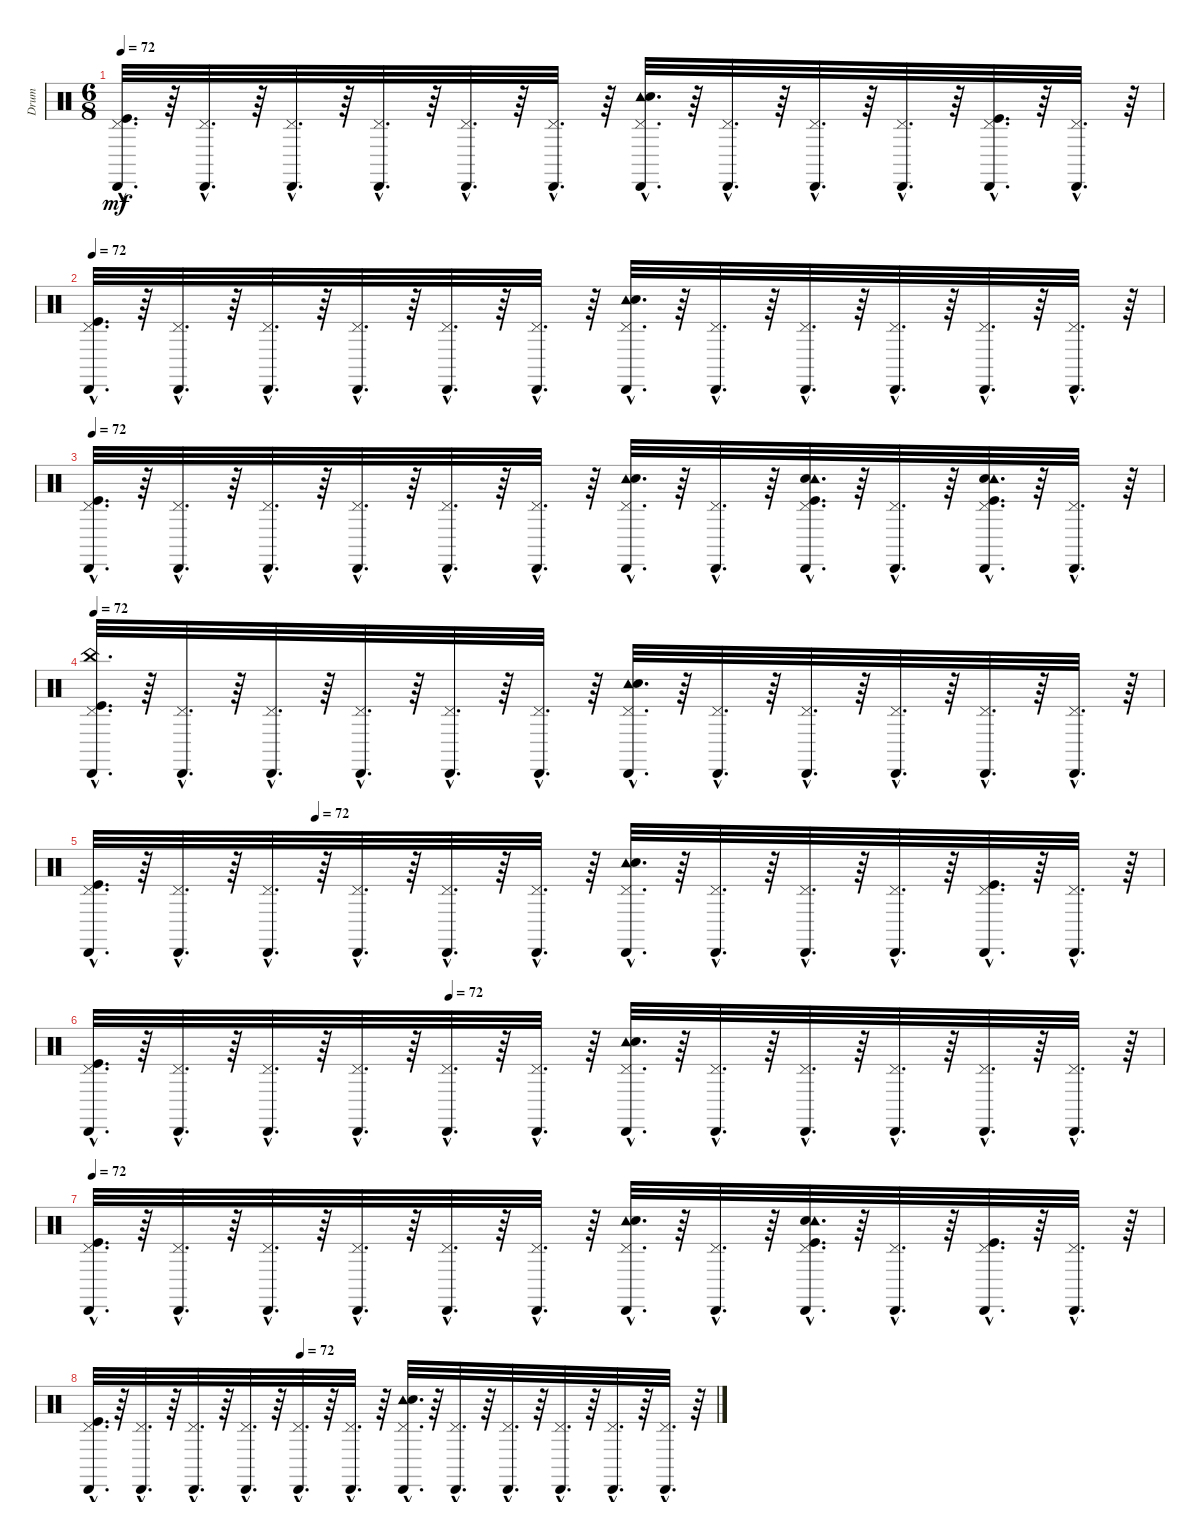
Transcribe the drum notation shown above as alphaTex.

\track ("Drum" "Drum") {instrument percussion}
\staff {score}
\articulation defaults
\ts (6 8)
\tempo 72
\clef neutral
\ks c
("Cabasa (hit)"{hac} "Pedal Hi-Hat (hit)"{hac} "Kick (hit)"{hac}).32{d dy mf} r.64 ("Cabasa (hit)"{hac} "Pedal Hi-Hat (hit)"{hac}).32{d} r.64 ("Cabasa (hit)"{hac} "Pedal Hi-Hat (hit)"{hac}).32{d} r.64 ("Cabasa (hit)"{hac} "Pedal Hi-Hat (hit)"{hac}).32{d} r.64 ("Cabasa (hit)"{hac} "Pedal Hi-Hat (hit)"{hac}).32{d} r.64 ("Cabasa (hit)"{hac} "Pedal Hi-Hat (hit)"{hac}).32{d} r.64 ("Cabasa (hit)"{hac} "Pedal Hi-Hat (hit)"{hac} "Tambourine (hit)"{hac} "Electric Snare (hit)"{hac}).32{d} r.64 ("Cabasa (hit)"{hac} "Pedal Hi-Hat (hit)"{hac}).32{d} r.64 ("Cabasa (hit)"{hac} "Pedal Hi-Hat (hit)"{hac}).32{d} r.64 ("Cabasa (hit)"{hac} "Pedal Hi-Hat (hit)"{hac}).32{d} r.64 ("Kick (hit)"{hac} "Cabasa (hit)"{hac} "Pedal Hi-Hat (hit)"{hac}).32{d} r.64 ("Cabasa (hit)"{hac} "Pedal Hi-Hat (hit)"{hac}).32{d} r.64 |
\tempo 72
("Cabasa (hit)"{hac} "Pedal Hi-Hat (hit)"{hac} "Kick (hit)"{hac}).32{d} r.64 ("Cabasa (hit)"{hac} "Pedal Hi-Hat (hit)"{hac}).32{d} r.64 ("Cabasa (hit)"{hac} "Pedal Hi-Hat (hit)"{hac}).32{d} r.64 ("Cabasa (hit)"{hac} "Pedal Hi-Hat (hit)"{hac}).32{d} r.64 ("Cabasa (hit)"{hac} "Pedal Hi-Hat (hit)"{hac}).32{d} r.64 ("Cabasa (hit)"{hac} "Pedal Hi-Hat (hit)"{hac}).32{d} r.64 ("Cabasa (hit)"{hac} "Pedal Hi-Hat (hit)"{hac} "Tambourine (hit)"{hac} "Electric Snare (hit)"{hac}).32{d} r.64 ("Cabasa (hit)"{hac} "Pedal Hi-Hat (hit)"{hac}).32{d} r.64 ("Cabasa (hit)"{hac} "Pedal Hi-Hat (hit)"{hac}).32{d} r.64 ("Cabasa (hit)"{hac} "Pedal Hi-Hat (hit)"{hac}).32{d} r.64 ("Cabasa (hit)"{hac} "Pedal Hi-Hat (hit)"{hac}).32{d} r.64 ("Cabasa (hit)"{hac} "Pedal Hi-Hat (hit)"{hac}).32{d} r.64 |
\tempo 72
("Cabasa (hit)"{hac} "Pedal Hi-Hat (hit)"{hac} "Kick (hit)"{hac}).32{d} r.64 ("Pedal Hi-Hat (hit)"{hac} "Cabasa (hit)"{hac}).32{d} r.64 ("Cabasa (hit)"{hac} "Pedal Hi-Hat (hit)"{hac}).32{d} r.64 ("Pedal Hi-Hat (hit)"{hac} "Cabasa (hit)"{hac}).32{d} r.64 ("Pedal Hi-Hat (hit)"{hac} "Cabasa (hit)"{hac}).32{d} r.64 ("Cabasa (hit)"{hac} "Pedal Hi-Hat (hit)"{hac}).32{d} r.64 ("Cabasa (hit)"{hac} "Tambourine (hit)"{hac} "Electric Snare (hit)"{hac} "Pedal Hi-Hat (hit)"{hac}).32{d} r.64 ("Cabasa (hit)"{hac} "Pedal Hi-Hat (hit)"{hac}).32{d} r.64 ("Kick (hit)"{hac} "Pedal Hi-Hat (hit)"{hac} "Electric Snare (hit)"{hac} "Tambourine (hit)"{hac} "Cabasa (hit)"{hac}).32{d} r.64 ("Cabasa (hit)"{hac} "Pedal Hi-Hat (hit)"{hac}).32{d} r.64 ("Kick (hit)"{hac} "Cabasa (hit)"{hac} "Pedal Hi-Hat (hit)"{hac} "Electric Snare (hit)"{hac} "Tambourine (hit)"{hac}).32{d} r.64 ("Pedal Hi-Hat (hit)"{hac} "Cabasa (hit)"{hac}).32{d} r.64 |
\tempo 72
("China (hit)"{hac} "Cabasa (hit)"{hac} "Pedal Hi-Hat (hit)"{hac} "Kick (hit)"{hac}).32{d} r.64 ("Cabasa (hit)"{hac} "Pedal Hi-Hat (hit)"{hac}).32{d} r.64 ("Cabasa (hit)"{hac} "Pedal Hi-Hat (hit)"{hac}).32{d} r.64 ("Cabasa (hit)"{hac} "Pedal Hi-Hat (hit)"{hac}).32{d} r.64 ("Cabasa (hit)"{hac} "Pedal Hi-Hat (hit)"{hac}).32{d} r.64 ("Cabasa (hit)"{hac} "Pedal Hi-Hat (hit)"{hac}).32{d} r.64 ("Cabasa (hit)"{hac} "Pedal Hi-Hat (hit)"{hac} "Tambourine (hit)"{hac} "Electric Snare (hit)"{hac}).32{d} r.64 ("Cabasa (hit)"{hac} "Pedal Hi-Hat (hit)"{hac}).32{d} r.64 ("Cabasa (hit)"{hac} "Pedal Hi-Hat (hit)"{hac}).32{d} r.64 ("Cabasa (hit)"{hac} "Pedal Hi-Hat (hit)"{hac}).32{d} r.64 ("Cabasa (hit)"{hac} "Pedal Hi-Hat (hit)"{hac}).32{d} r.64 ("Cabasa (hit)"{hac} "Pedal Hi-Hat (hit)"{hac}).32{d} r.64 |
\tempo (72 0.20833333333333334)
("Cabasa (hit)"{hac} "Pedal Hi-Hat (hit)"{hac} "Kick (hit)"{hac}).32{d} r.64 ("Cabasa (hit)"{hac} "Pedal Hi-Hat (hit)"{hac}).32{d} r.64 ("Cabasa (hit)"{hac} "Pedal Hi-Hat (hit)"{hac}).32{d} r.64 ("Cabasa (hit)"{hac} "Pedal Hi-Hat (hit)"{hac}).32{d} r.64 ("Cabasa (hit)"{hac} "Pedal Hi-Hat (hit)"{hac}).32{d} r.64 ("Cabasa (hit)"{hac} "Pedal Hi-Hat (hit)"{hac}).32{d} r.64 ("Cabasa (hit)"{hac} "Pedal Hi-Hat (hit)"{hac} "Tambourine (hit)"{hac} "Electric Snare (hit)"{hac}).32{d} r.64 ("Cabasa (hit)"{hac} "Pedal Hi-Hat (hit)"{hac}).32{d} r.64 ("Cabasa (hit)"{hac} "Pedal Hi-Hat (hit)"{hac}).32{d} r.64 ("Cabasa (hit)"{hac} "Pedal Hi-Hat (hit)"{hac}).32{d} r.64 ("Kick (hit)"{hac} "Cabasa (hit)"{hac} "Pedal Hi-Hat (hit)"{hac}).32{d} r.64 ("Cabasa (hit)"{hac} "Pedal Hi-Hat (hit)"{hac}).32{d} r.64 |
\tempo (72 0.3333333333333333)
("Cabasa (hit)"{hac} "Pedal Hi-Hat (hit)"{hac} "Kick (hit)"{hac}).32{d} r.64 ("Cabasa (hit)"{hac} "Pedal Hi-Hat (hit)"{hac}).32{d} r.64 ("Cabasa (hit)"{hac} "Pedal Hi-Hat (hit)"{hac}).32{d} r.64 ("Cabasa (hit)"{hac} "Pedal Hi-Hat (hit)"{hac}).32{d} r.64 ("Cabasa (hit)"{hac} "Pedal Hi-Hat (hit)"{hac}).32{d} r.64 ("Cabasa (hit)"{hac} "Pedal Hi-Hat (hit)"{hac}).32{d} r.64 ("Cabasa (hit)"{hac} "Pedal Hi-Hat (hit)"{hac} "Tambourine (hit)"{hac} "Electric Snare (hit)"{hac}).32{d} r.64 ("Cabasa (hit)"{hac} "Pedal Hi-Hat (hit)"{hac}).32{d} r.64 ("Cabasa (hit)"{hac} "Pedal Hi-Hat (hit)"{hac}).32{d} r.64 ("Cabasa (hit)"{hac} "Pedal Hi-Hat (hit)"{hac}).32{d} r.64 ("Cabasa (hit)"{hac} "Pedal Hi-Hat (hit)"{hac}).32{d} r.64 ("Cabasa (hit)"{hac} "Pedal Hi-Hat (hit)"{hac}).32{d} r.64 |
\tempo 72
("Cabasa (hit)"{hac} "Pedal Hi-Hat (hit)"{hac} "Kick (hit)"{hac}).32{d} r.64 ("Cabasa (hit)"{hac} "Pedal Hi-Hat (hit)"{hac}).32{d} r.64 ("Cabasa (hit)"{hac} "Pedal Hi-Hat (hit)"{hac}).32{d} r.64 ("Cabasa (hit)"{hac} "Pedal Hi-Hat (hit)"{hac}).32{d} r.64 ("Cabasa (hit)"{hac} "Pedal Hi-Hat (hit)"{hac}).32{d} r.64 ("Cabasa (hit)"{hac} "Pedal Hi-Hat (hit)"{hac}).32{d} r.64 ("Cabasa (hit)"{hac} "Pedal Hi-Hat (hit)"{hac} "Tambourine (hit)"{hac} "Electric Snare (hit)"{hac}).32{d} r.64 ("Cabasa (hit)"{hac} "Pedal Hi-Hat (hit)"{hac}).32{d} r.64 ("Kick (hit)"{hac} "Electric Snare (hit)"{hac} "Tambourine (hit)"{hac} "Cabasa (hit)"{hac} "Pedal Hi-Hat (hit)"{hac}).32{d} r.64 ("Cabasa (hit)"{hac} "Pedal Hi-Hat (hit)"{hac}).32{d} r.64 ("Kick (hit)"{hac} "Cabasa (hit)"{hac} "Pedal Hi-Hat (hit)"{hac}).32{d} r.64 ("Cabasa (hit)"{hac} "Pedal Hi-Hat (hit)"{hac}).32{d} r.64 |
\tempo (72 0.3333333333333333)
("Cabasa (hit)"{hac} "Pedal Hi-Hat (hit)"{hac} "Kick (hit)"{hac}).32{d} r.64 ("Cabasa (hit)"{hac} "Pedal Hi-Hat (hit)"{hac}).32{d} r.64 ("Cabasa (hit)"{hac} "Pedal Hi-Hat (hit)"{hac}).32{d} r.64 ("Cabasa (hit)"{hac} "Pedal Hi-Hat (hit)"{hac}).32{d} r.64 ("Cabasa (hit)"{hac} "Pedal Hi-Hat (hit)"{hac}).32{d} r.64 ("Cabasa (hit)"{hac} "Pedal Hi-Hat (hit)"{hac}).32{d} r.64 ("Cabasa (hit)"{hac} "Pedal Hi-Hat (hit)"{hac} "Tambourine (hit)"{hac} "Electric Snare (hit)"{hac}).32{d} r.64 ("Cabasa (hit)"{hac} "Pedal Hi-Hat (hit)"{hac}).32{d} r.64 ("Cabasa (hit)"{hac} "Pedal Hi-Hat (hit)"{hac}).32{d} r.64 ("Cabasa (hit)"{hac} "Pedal Hi-Hat (hit)"{hac}).32{d} r.64 ("Cabasa (hit)"{hac} "Pedal Hi-Hat (hit)"{hac}).32{d} r.64 ("Cabasa (hit)"{hac} "Pedal Hi-Hat (hit)"{hac}).32{d} r.64
